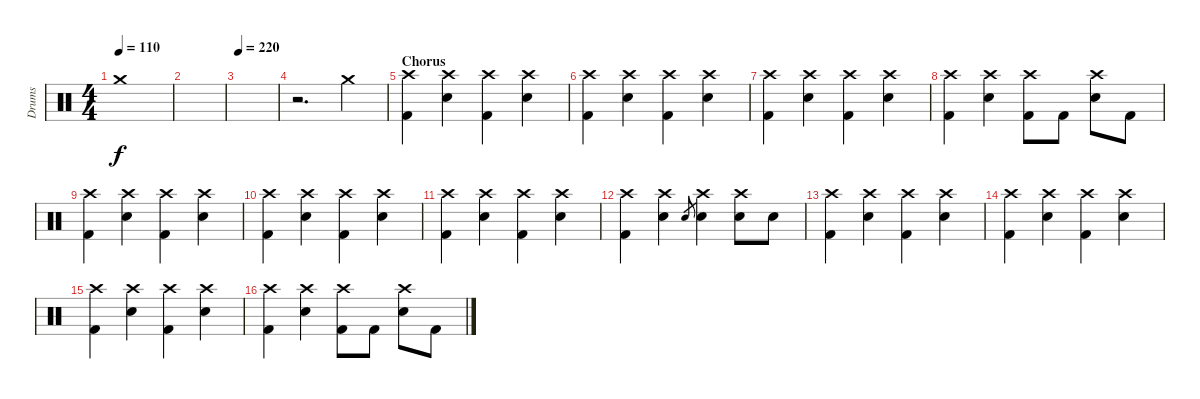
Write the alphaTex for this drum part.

\track ("Drums" "Drums") {instrument percussion}
\staff {score}
\articulation defaults
\ts (4 4)
\tempo 110
\clef neutral
\ks c "Crash medium (hit)".1{dy f}
|
|
\tempo 220
|
r.2{d} "Crash medium (hit)".4 |
\section ("" "Chorus")
("Crash high (hit)" "Kick (hit) 2").4 ("Crash high (hit)" "Electric Snare (hit)").4 ("Crash high (hit)" "Kick (hit) 2").4 ("Crash high (hit)" "Electric Snare (hit)").4 |
("Crash high (hit)" "Kick (hit) 2").4 ("Crash high (hit)" "Electric Snare (hit)").4 ("Crash high (hit)" "Kick (hit) 2").4 ("Crash high (hit)" "Electric Snare (hit)").4 |
("Crash high (hit)" "Kick (hit) 2").4 ("Crash high (hit)" "Electric Snare (hit)").4 ("Crash high (hit)" "Kick (hit) 2").4 ("Crash high (hit)" "Electric Snare (hit)").4 |
("Crash high (hit)" "Kick (hit) 2").4 ("Crash high (hit)" "Electric Snare (hit)").4 ("Crash high (hit)" "Kick (hit) 2").8 "Kick (hit) 2".8 ("Crash high (hit)" "Electric Snare (hit)").8 "Kick (hit) 2".8 |
("Crash high (hit)" "Kick (hit) 2").4 ("Crash high (hit)" "Electric Snare (hit)").4 ("Crash high (hit)" "Kick (hit) 2").4 ("Crash high (hit)" "Electric Snare (hit)").4 |
("Crash high (hit)" "Kick (hit) 2").4 ("Crash high (hit)" "Electric Snare (hit)").4 ("Crash high (hit)" "Kick (hit) 2").4 ("Crash high (hit)" "Electric Snare (hit)").4 |
("Crash high (hit)" "Kick (hit) 2").4 ("Crash high (hit)" "Electric Snare (hit)").4 ("Crash high (hit)" "Kick (hit) 2").4 ("Crash high (hit)" "Electric Snare (hit)").4 |
("Crash high (hit)" "Kick (hit) 2").4 ("Crash high (hit)" "Electric Snare (hit)").4 "Electric Snare (hit)".8{gr} ("Crash high (hit)" "Electric Snare (hit)").4 ("Crash high (hit)" "Electric Snare (hit)").8 "Electric Snare (hit)".8 |
("Crash high (hit)" "Kick (hit) 2").4 ("Crash high (hit)" "Electric Snare (hit)").4 ("Crash high (hit)" "Kick (hit) 2").4 ("Crash high (hit)" "Electric Snare (hit)").4 |
("Crash high (hit)" "Kick (hit) 2").4 ("Crash high (hit)" "Electric Snare (hit)").4 ("Crash high (hit)" "Kick (hit) 2").4 ("Crash high (hit)" "Electric Snare (hit)").4 |
("Crash high (hit)" "Kick (hit) 2").4 ("Crash high (hit)" "Electric Snare (hit)").4 ("Crash high (hit)" "Kick (hit) 2").4 ("Crash high (hit)" "Electric Snare (hit)").4 |
("Crash high (hit)" "Kick (hit) 2").4 ("Crash high (hit)" "Electric Snare (hit)").4 ("Crash high (hit)" "Kick (hit) 2").8 "Kick (hit) 2".8 ("Crash high (hit)" "Electric Snare (hit)").8 "Kick (hit) 2".8
